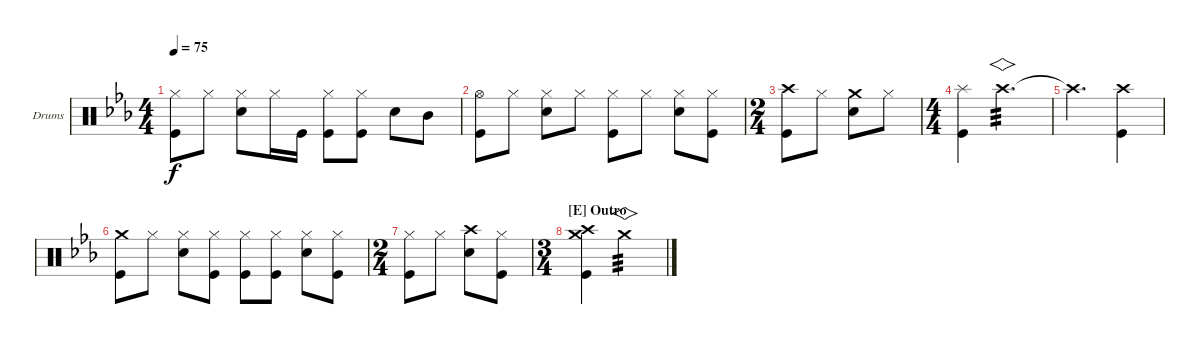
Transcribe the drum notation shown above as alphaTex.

\bracketExtendMode groupsimilarinstruments
\firstSystemTrackNameOrientation horizontal
\otherSystemsTrackNameOrientation horizontal
\track ("Drumkit" "Drums") {instrument percussion}
\staff {score}
\articulation defaults
\ts (4 4)
\tempo 75
\clef neutral
\scale
0.333333
\ks eb
("Kick (hit)" "Hi-Hat (closed)").8{dy f} "Hi-Hat (closed)".8 ("Snare (hit) 2" "Hi-Hat (closed)").8 "Hi-Hat (closed)".16 "Kick (hit)".16 ("Kick (hit)" "Hi-Hat (closed)").8 ("Kick (hit)" "Hi-Hat (closed)").8 "Snare (hit) 2".8 "Mid Tom (hit)".8 |
\scale
0.217054 ("Kick (hit)" "Hi-Hat (open)").8 "Hi-Hat (closed)".8 ("Snare (hit) 2" "Hi-Hat (closed)").8 "Hi-Hat (closed)".8 ("Kick (hit)" "Hi-Hat (closed)").8 "Hi-Hat (closed)".8 ("Snare (hit) 2" "Hi-Hat (closed)").8 ("Kick (hit)" "Hi-Hat (closed)").8 |
\ts (2 4)
\scale
0.391473 ("Kick (hit)" "Crash high (hit)").8 "Hi-Hat (closed)".8 ("Snare (hit) 2" "Crash medium (hit)").8 "Hi-Hat (closed)".8 |
\ts (4 4)
\scale
0.391473 ("Splash (hit)" "Kick (hit)").4 "Crash high (hit)".2{vs d tp 3} |
\scale
0.262911 "Crash high (hit)"{t}.2{d} ("Kick (hit)" "Crash high (hit)").4 |
\scale
0.262911 ("Crash medium (hit)" "Kick (hit)").8 "Hi-Hat (closed)".8 ("Snare (hit) 2" "Hi-Hat (closed)").8 ("Kick (hit)" "Hi-Hat (closed)").8 ("Kick (hit)" "Hi-Hat (closed)").8 ("Kick (hit)" "Hi-Hat (closed)").8 ("Snare (hit) 2" "Hi-Hat (closed)").8 ("Kick (hit)" "Hi-Hat (closed)").8 |
\ts (2 4)
\scale
0.474178 ("Kick (hit)" "Hi-Hat (closed)").8 "Hi-Hat (closed)".8 ("Snare (hit) 2" "Crash high (hit)").8 ("Kick (hit)" "Hi-Hat (closed)").8 |
\ts (3 4)
\section ("E" "Outro")
\scale
0.474178 ("Kick (hit)" "Crash high (hit)" "Crash medium (hit)").4 "Crash medium (hit)".2{vs tp 3} |
\scale
0.262911 |
\scale
0.262911 |
\scale
0.333333 |
\scale
0.333333 |
\scale
0.333333
